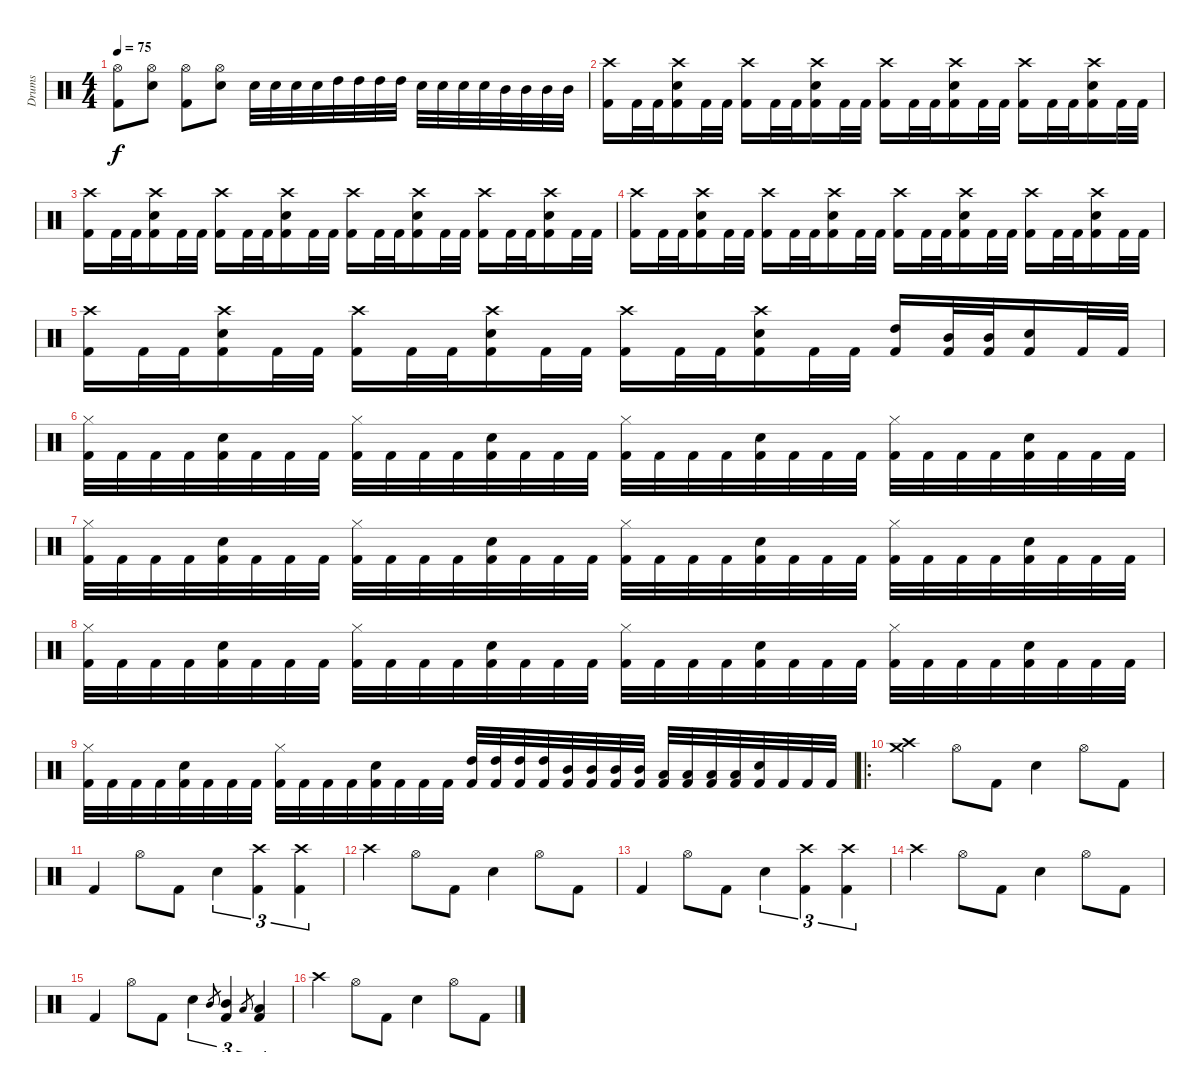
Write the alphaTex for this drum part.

\track ("Drums" "Drums") {instrument percussion}
\staff {score}
\articulation defaults
\ts (4 4)
\tempo 75
\clef neutral
\ks c
("Kick (hit) 2" "Hi-Hat (open)").8{dy f} ("Electric Snare (hit)" "Hi-Hat (open)").8 ("Kick (hit) 2" "Hi-Hat (open)").8 ("Electric Snare (hit)" "Hi-Hat (open)").8 "Electric Snare (hit)".32 "Electric Snare (hit)".32 "Electric Snare (hit)".32 "Electric Snare (hit)".32 "High Tom (hit)".32 "High Tom (hit)".32 "High Tom (hit)".32 "High Tom (hit)".32 "Electric Snare (hit)".32 "Electric Snare (hit)".32 "Electric Snare (hit)".32 "Electric Snare (hit)".32 "Mid Tom (hit)".32 "Mid Tom (hit)".32 "Mid Tom (hit)".32 "Mid Tom (hit)".32 |
("Kick (hit) 2" "Crash high (hit)").16 "Kick (hit) 2".32 "Kick (hit) 2".32 ("Kick (hit) 2" "Electric Snare (hit)" "Crash high (hit)").16 "Kick (hit) 2".32 "Kick (hit) 2".32 ("Kick (hit) 2" "Crash high (hit)").16 "Kick (hit) 2".32 "Kick (hit) 2".32 ("Kick (hit) 2" "Electric Snare (hit)" "Crash high (hit)").16 "Kick (hit) 2".32 "Kick (hit) 2".32 ("Kick (hit) 2" "Crash high (hit)").16 "Kick (hit) 2".32 "Kick (hit) 2".32 ("Kick (hit) 2" "Electric Snare (hit)" "Crash high (hit)").16 "Kick (hit) 2".32 "Kick (hit) 2".32 ("Kick (hit) 2" "Crash high (hit)").16 "Kick (hit) 2".32 "Kick (hit) 2".32 ("Kick (hit) 2" "Electric Snare (hit)" "Crash high (hit)").16 "Kick (hit) 2".32 "Kick (hit) 2".32 |
("Kick (hit) 2" "Crash high (hit)").16 "Kick (hit) 2".32 "Kick (hit) 2".32 ("Kick (hit) 2" "Electric Snare (hit)" "Crash high (hit)").16 "Kick (hit) 2".32 "Kick (hit) 2".32 ("Kick (hit) 2" "Crash high (hit)").16 "Kick (hit) 2".32 "Kick (hit) 2".32 ("Kick (hit) 2" "Electric Snare (hit)" "Crash high (hit)").16 "Kick (hit) 2".32 "Kick (hit) 2".32 ("Kick (hit) 2" "Crash high (hit)").16 "Kick (hit) 2".32 "Kick (hit) 2".32 ("Kick (hit) 2" "Electric Snare (hit)" "Crash high (hit)").16 "Kick (hit) 2".32 "Kick (hit) 2".32 ("Kick (hit) 2" "Crash high (hit)").16 "Kick (hit) 2".32 "Kick (hit) 2".32 ("Kick (hit) 2" "Electric Snare (hit)" "Crash high (hit)").16 "Kick (hit) 2".32 "Kick (hit) 2".32 |
("Kick (hit) 2" "Crash high (hit)").16 "Kick (hit) 2".32 "Kick (hit) 2".32 ("Kick (hit) 2" "Electric Snare (hit)" "Crash high (hit)").16 "Kick (hit) 2".32 "Kick (hit) 2".32 ("Kick (hit) 2" "Crash high (hit)").16 "Kick (hit) 2".32 "Kick (hit) 2".32 ("Kick (hit) 2" "Electric Snare (hit)" "Crash high (hit)").16 "Kick (hit) 2".32 "Kick (hit) 2".32 ("Kick (hit) 2" "Crash high (hit)").16 "Kick (hit) 2".32 "Kick (hit) 2".32 ("Kick (hit) 2" "Electric Snare (hit)" "Crash high (hit)").16 "Kick (hit) 2".32 "Kick (hit) 2".32 ("Kick (hit) 2" "Crash high (hit)").16 "Kick (hit) 2".32 "Kick (hit) 2".32 ("Kick (hit) 2" "Electric Snare (hit)" "Crash high (hit)").16 "Kick (hit) 2".32 "Kick (hit) 2".32 |
("Kick (hit) 2" "Crash high (hit)").16 "Kick (hit) 2".32 "Kick (hit) 2".32 ("Kick (hit) 2" "Electric Snare (hit)" "Crash high (hit)").16 "Kick (hit) 2".32 "Kick (hit) 2".32 ("Kick (hit) 2" "Crash high (hit)").16 "Kick (hit) 2".32 "Kick (hit) 2".32 ("Kick (hit) 2" "Electric Snare (hit)" "Crash high (hit)").16 "Kick (hit) 2".32 "Kick (hit) 2".32 ("Kick (hit) 2" "Crash high (hit)").16 "Kick (hit) 2".32 "Kick (hit) 2".32 ("Kick (hit) 2" "Electric Snare (hit)" "Crash high (hit)").16 "Kick (hit) 2".32 "Kick (hit) 2".32 ("Kick (hit) 2" "High Tom (hit)").16 ("Kick (hit) 2" "Mid Tom (hit)").32 ("Kick (hit) 2" "Mid Tom (hit)").32 ("Kick (hit) 2" "Electric Snare (hit)").16 "Kick (hit) 2".32 "Kick (hit) 2".32 |
("Kick (hit) 2" "Hi-Hat (closed)").32 "Kick (hit) 2".32 "Kick (hit) 2".32 "Kick (hit) 2".32 ("Kick (hit) 2" "Electric Snare (hit)").32 "Kick (hit) 2".32 "Kick (hit) 2".32 "Kick (hit) 2".32 ("Kick (hit) 2" "Hi-Hat (closed)").32 "Kick (hit) 2".32 "Kick (hit) 2".32 "Kick (hit) 2".32 ("Kick (hit) 2" "Electric Snare (hit)").32 "Kick (hit) 2".32 "Kick (hit) 2".32 "Kick (hit) 2".32 ("Kick (hit) 2" "Hi-Hat (closed)").32 "Kick (hit) 2".32 "Kick (hit) 2".32 "Kick (hit) 2".32 ("Kick (hit) 2" "Electric Snare (hit)").32 "Kick (hit) 2".32 "Kick (hit) 2".32 "Kick (hit) 2".32 ("Kick (hit) 2" "Hi-Hat (closed)").32 "Kick (hit) 2".32 "Kick (hit) 2".32 "Kick (hit) 2".32 ("Kick (hit) 2" "Electric Snare (hit)").32 "Kick (hit) 2".32 "Kick (hit) 2".32 "Kick (hit) 2".32 |
("Kick (hit) 2" "Hi-Hat (closed)").32 "Kick (hit) 2".32 "Kick (hit) 2".32 "Kick (hit) 2".32 ("Kick (hit) 2" "Electric Snare (hit)").32 "Kick (hit) 2".32 "Kick (hit) 2".32 "Kick (hit) 2".32 ("Kick (hit) 2" "Hi-Hat (closed)").32 "Kick (hit) 2".32 "Kick (hit) 2".32 "Kick (hit) 2".32 ("Kick (hit) 2" "Electric Snare (hit)").32 "Kick (hit) 2".32 "Kick (hit) 2".32 "Kick (hit) 2".32 ("Kick (hit) 2" "Hi-Hat (closed)").32 "Kick (hit) 2".32 "Kick (hit) 2".32 "Kick (hit) 2".32 ("Kick (hit) 2" "Electric Snare (hit)").32 "Kick (hit) 2".32 "Kick (hit) 2".32 "Kick (hit) 2".32 ("Kick (hit) 2" "Hi-Hat (closed)").32 "Kick (hit) 2".32 "Kick (hit) 2".32 "Kick (hit) 2".32 ("Kick (hit) 2" "Electric Snare (hit)").32 "Kick (hit) 2".32 "Kick (hit) 2".32 "Kick (hit) 2".32 |
("Kick (hit) 2" "Hi-Hat (closed)").32 "Kick (hit) 2".32 "Kick (hit) 2".32 "Kick (hit) 2".32 ("Kick (hit) 2" "Electric Snare (hit)").32 "Kick (hit) 2".32 "Kick (hit) 2".32 "Kick (hit) 2".32 ("Kick (hit) 2" "Hi-Hat (closed)").32 "Kick (hit) 2".32 "Kick (hit) 2".32 "Kick (hit) 2".32 ("Kick (hit) 2" "Electric Snare (hit)").32 "Kick (hit) 2".32 "Kick (hit) 2".32 "Kick (hit) 2".32 ("Kick (hit) 2" "Hi-Hat (closed)").32 "Kick (hit) 2".32 "Kick (hit) 2".32 "Kick (hit) 2".32 ("Kick (hit) 2" "Electric Snare (hit)").32 "Kick (hit) 2".32 "Kick (hit) 2".32 "Kick (hit) 2".32 ("Kick (hit) 2" "Hi-Hat (closed)").32 "Kick (hit) 2".32 "Kick (hit) 2".32 "Kick (hit) 2".32 ("Kick (hit) 2" "Electric Snare (hit)").32 "Kick (hit) 2".32 "Kick (hit) 2".32 "Kick (hit) 2".32 |
("Kick (hit) 2" "Hi-Hat (closed)").32 "Kick (hit) 2".32 "Kick (hit) 2".32 "Kick (hit) 2".32 ("Kick (hit) 2" "Electric Snare (hit)").32 "Kick (hit) 2".32 "Kick (hit) 2".32 "Kick (hit) 2".32 ("Kick (hit) 2" "Hi-Hat (closed)").32 "Kick (hit) 2".32 "Kick (hit) 2".32 "Kick (hit) 2".32 ("Kick (hit) 2" "Electric Snare (hit)").32 "Kick (hit) 2".32 "Kick (hit) 2".32 "Kick (hit) 2".32 ("Kick (hit) 2" "High Tom (hit)").32 ("Kick (hit) 2" "High Tom (hit)").32 ("Kick (hit) 2" "High Tom (hit)").32 ("Kick (hit) 2" "High Tom (hit)").32 ("Kick (hit) 2" "Mid Tom (hit)").32 ("Kick (hit) 2" "Mid Tom (hit)").32 ("Kick (hit) 2" "Mid Tom (hit)").32 ("Kick (hit) 2" "Mid Tom (hit)").32 ("Kick (hit) 2" "Low Tom (hit)").32 ("Kick (hit) 2" "Low Tom (hit)").32 ("Kick (hit) 2" "Low Tom (hit)").32 ("Kick (hit) 2" "Low Tom (hit)").32 ("Kick (hit) 2" "Electric Snare (hit)").32 "Kick (hit) 2".32 "Kick (hit) 2".32 "Kick (hit) 2".32 |
\ro
\section ("" "")
("Crash high (hit)" "Crash medium (hit)").4 "Hi-Hat (open)".8 "Kick (hit) 2".8 "Electric Snare (hit)".4 "Hi-Hat (open)".8 "Kick (hit) 2".8 |
"Kick (hit) 2".4 "Hi-Hat (open)".8 "Kick (hit) 2".8 "Electric Snare (hit)".4{tu (3 2)} ("Kick (hit) 2" "Crash high (hit)").4{tu (3 2)} ("Kick (hit) 2" "Crash high (hit)").4{tu (3 2)} |
"Crash high (hit)".4 "Hi-Hat (open)".8 "Kick (hit) 2".8 "Electric Snare (hit)".4 "Hi-Hat (open)".8 "Kick (hit) 2".8 |
"Kick (hit) 2".4 "Hi-Hat (open)".8 "Kick (hit) 2".8 "Electric Snare (hit)".4{tu (3 2)} ("Kick (hit) 2" "Crash high (hit)").4{tu (3 2)} ("Kick (hit) 2" "Crash high (hit)").4{tu (3 2)} |
"Crash high (hit)".4 "Hi-Hat (open)".8 "Kick (hit) 2".8 "Electric Snare (hit)".4 "Hi-Hat (open)".8 "Kick (hit) 2".8 |
"Kick (hit) 2".4 "Hi-Hat (open)".8 "Kick (hit) 2".8 "Electric Snare (hit)".4{tu (3 2)} "Mid Tom (hit)".8{gr} ("Kick (hit) 2" "Mid Tom (hit)").4{tu (3 2)} "Low Tom (hit)".8{gr} ("Kick (hit) 2" "Low Tom (hit)").4{tu (3 2)} |
"Crash high (hit)".4 "Hi-Hat (open)".8 "Kick (hit) 2".8 "Electric Snare (hit)".4 "Hi-Hat (open)".8 "Kick (hit) 2".8
